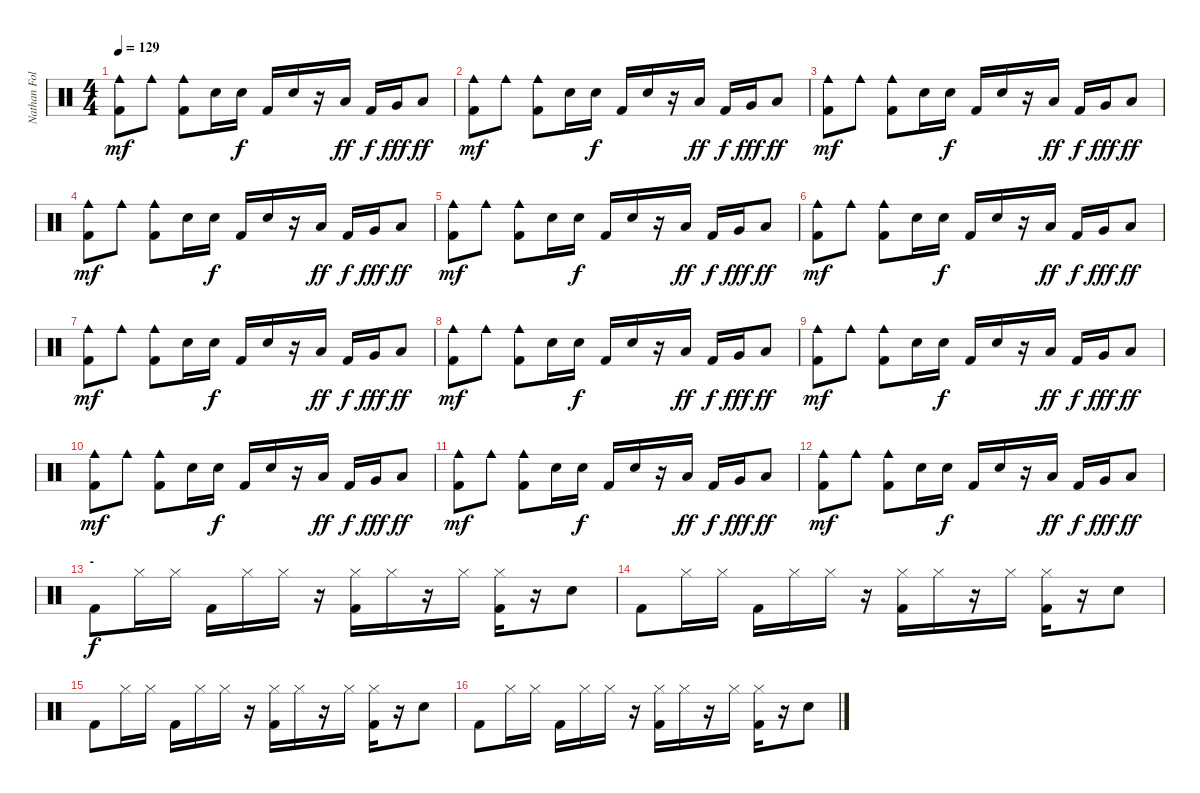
\track ("Nathan Followill" "Nathan Fol") {instrument percussion}
\staff {score}
\articulation defaults
\ts (4 4)
\tempo 129
\clef neutral
\ks c
("Cowbell medium (hit)" "Kick (hit) 2").8{dy mf} "Cowbell medium (hit)".8 ("Cowbell medium (hit)" "Kick (hit) 2").8 "Electric Snare (hit)".16 "Electric Snare (hit)".16{dy f} "Kick (hit) 2".16 "Electric Snare (hit)".16 r.16 "Low Tom (hit)".16{dy ff} "Kick (hit) 2".16{dy f} "Very Low Tom (hit)".16{dy fff} "Low Tom (hit)".8{dy ff} |
("Cowbell medium (hit)" "Kick (hit) 2").8{dy mf} "Cowbell medium (hit)".8 ("Cowbell medium (hit)" "Kick (hit) 2").8 "Electric Snare (hit)".16 "Electric Snare (hit)".16{dy f} "Kick (hit) 2".16 "Electric Snare (hit)".16 r.16 "Low Tom (hit)".16{dy ff} "Kick (hit) 2".16{dy f} "Very Low Tom (hit)".16{dy fff} "Low Tom (hit)".8{dy ff} |
("Cowbell medium (hit)" "Kick (hit) 2").8{dy mf} "Cowbell medium (hit)".8 ("Cowbell medium (hit)" "Kick (hit) 2").8 "Electric Snare (hit)".16 "Electric Snare (hit)".16{dy f} "Kick (hit) 2".16 "Electric Snare (hit)".16 r.16 "Low Tom (hit)".16{dy ff} "Kick (hit) 2".16{dy f} "Very Low Tom (hit)".16{dy fff} "Low Tom (hit)".8{dy ff} |
("Cowbell medium (hit)" "Kick (hit) 2").8{dy mf} "Cowbell medium (hit)".8 ("Cowbell medium (hit)" "Kick (hit) 2").8 "Electric Snare (hit)".16 "Electric Snare (hit)".16{dy f} "Kick (hit) 2".16 "Electric Snare (hit)".16 r.16 "Low Tom (hit)".16{dy ff} "Kick (hit) 2".16{dy f} "Very Low Tom (hit)".16{dy fff} "Low Tom (hit)".8{dy ff} |
("Cowbell medium (hit)" "Kick (hit) 2").8{dy mf} "Cowbell medium (hit)".8 ("Cowbell medium (hit)" "Kick (hit) 2").8 "Electric Snare (hit)".16 "Electric Snare (hit)".16{dy f} "Kick (hit) 2".16 "Electric Snare (hit)".16 r.16 "Low Tom (hit)".16{dy ff} "Kick (hit) 2".16{dy f} "Very Low Tom (hit)".16{dy fff} "Low Tom (hit)".8{dy ff} |
("Cowbell medium (hit)" "Kick (hit) 2").8{dy mf} "Cowbell medium (hit)".8 ("Cowbell medium (hit)" "Kick (hit) 2").8 "Electric Snare (hit)".16 "Electric Snare (hit)".16{dy f} "Kick (hit) 2".16 "Electric Snare (hit)".16 r.16 "Low Tom (hit)".16{dy ff} "Kick (hit) 2".16{dy f} "Very Low Tom (hit)".16{dy fff} "Low Tom (hit)".8{dy ff} |
("Cowbell medium (hit)" "Kick (hit) 2").8{dy mf} "Cowbell medium (hit)".8 ("Cowbell medium (hit)" "Kick (hit) 2").8 "Electric Snare (hit)".16 "Electric Snare (hit)".16{dy f} "Kick (hit) 2".16 "Electric Snare (hit)".16 r.16 "Low Tom (hit)".16{dy ff} "Kick (hit) 2".16{dy f} "Very Low Tom (hit)".16{dy fff} "Low Tom (hit)".8{dy ff} |
("Cowbell medium (hit)" "Kick (hit) 2").8{dy mf} "Cowbell medium (hit)".8 ("Cowbell medium (hit)" "Kick (hit) 2").8 "Electric Snare (hit)".16 "Electric Snare (hit)".16{dy f} "Kick (hit) 2".16 "Electric Snare (hit)".16 r.16 "Low Tom (hit)".16{dy ff} "Kick (hit) 2".16{dy f} "Very Low Tom (hit)".16{dy fff} "Low Tom (hit)".8{dy ff} |
("Cowbell medium (hit)" "Kick (hit) 2").8{dy mf} "Cowbell medium (hit)".8 ("Cowbell medium (hit)" "Kick (hit) 2").8 "Electric Snare (hit)".16 "Electric Snare (hit)".16{dy f} "Kick (hit) 2".16 "Electric Snare (hit)".16 r.16 "Low Tom (hit)".16{dy ff} "Kick (hit) 2".16{dy f} "Very Low Tom (hit)".16{dy fff} "Low Tom (hit)".8{dy ff} |
("Cowbell medium (hit)" "Kick (hit) 2").8{dy mf} "Cowbell medium (hit)".8 ("Cowbell medium (hit)" "Kick (hit) 2").8 "Electric Snare (hit)".16 "Electric Snare (hit)".16{dy f} "Kick (hit) 2".16 "Electric Snare (hit)".16 r.16 "Low Tom (hit)".16{dy ff} "Kick (hit) 2".16{dy f} "Very Low Tom (hit)".16{dy fff} "Low Tom (hit)".8{dy ff} |
("Cowbell medium (hit)" "Kick (hit) 2").8{dy mf} "Cowbell medium (hit)".8 ("Cowbell medium (hit)" "Kick (hit) 2").8 "Electric Snare (hit)".16 "Electric Snare (hit)".16{dy f} "Kick (hit) 2".16 "Electric Snare (hit)".16 r.16 "Low Tom (hit)".16{dy ff} "Kick (hit) 2".16{dy f} "Very Low Tom (hit)".16{dy fff} "Low Tom (hit)".8{dy ff} |
("Cowbell medium (hit)" "Kick (hit) 2").8{dy mf} "Cowbell medium (hit)".8 ("Cowbell medium (hit)" "Kick (hit) 2").8 "Electric Snare (hit)".16 "Electric Snare (hit)".16{dy f} "Kick (hit) 2".16 "Electric Snare (hit)".16 r.16 "Low Tom (hit)".16{dy ff} "Kick (hit) 2".16{dy f} "Very Low Tom (hit)".16{dy fff} "Low Tom (hit)".8{dy ff} |
\section ("" "-")
"Kick (hit) 2".8{dy f} "Hi-Hat (closed)".16 "Hi-Hat (closed)".16 "Kick (hit) 2".16 "Hi-Hat (closed)".16 "Hi-Hat (closed)".16 r.16 ("Hi-Hat (closed)" "Kick (hit) 2").16 "Hi-Hat (closed)".16 r.16 "Hi-Hat (closed)".16 ("Hi-Hat (closed)" "Kick (hit) 2").16 r.16 "Electric Snare (hit)".8 |
"Kick (hit) 2".8 "Hi-Hat (closed)".16 "Hi-Hat (closed)".16 "Kick (hit) 2".16 "Hi-Hat (closed)".16 "Hi-Hat (closed)".16 r.16 ("Hi-Hat (closed)" "Kick (hit) 2").16 "Hi-Hat (closed)".16 r.16 "Hi-Hat (closed)".16 ("Hi-Hat (closed)" "Kick (hit) 2").16 r.16 "Electric Snare (hit)".8 |
"Kick (hit) 2".8 "Hi-Hat (closed)".16 "Hi-Hat (closed)".16 "Kick (hit) 2".16 "Hi-Hat (closed)".16 "Hi-Hat (closed)".16 r.16 ("Hi-Hat (closed)" "Kick (hit) 2").16 "Hi-Hat (closed)".16 r.16 "Hi-Hat (closed)".16 ("Hi-Hat (closed)" "Kick (hit) 2").16 r.16 "Electric Snare (hit)".8 |
"Kick (hit) 2".8 "Hi-Hat (closed)".16 "Hi-Hat (closed)".16 "Kick (hit) 2".16 "Hi-Hat (closed)".16 "Hi-Hat (closed)".16 r.16 ("Hi-Hat (closed)" "Kick (hit) 2").16 "Hi-Hat (closed)".16 r.16 "Hi-Hat (closed)".16 ("Hi-Hat (closed)" "Kick (hit) 2").16 r.16 "Electric Snare (hit)".8
